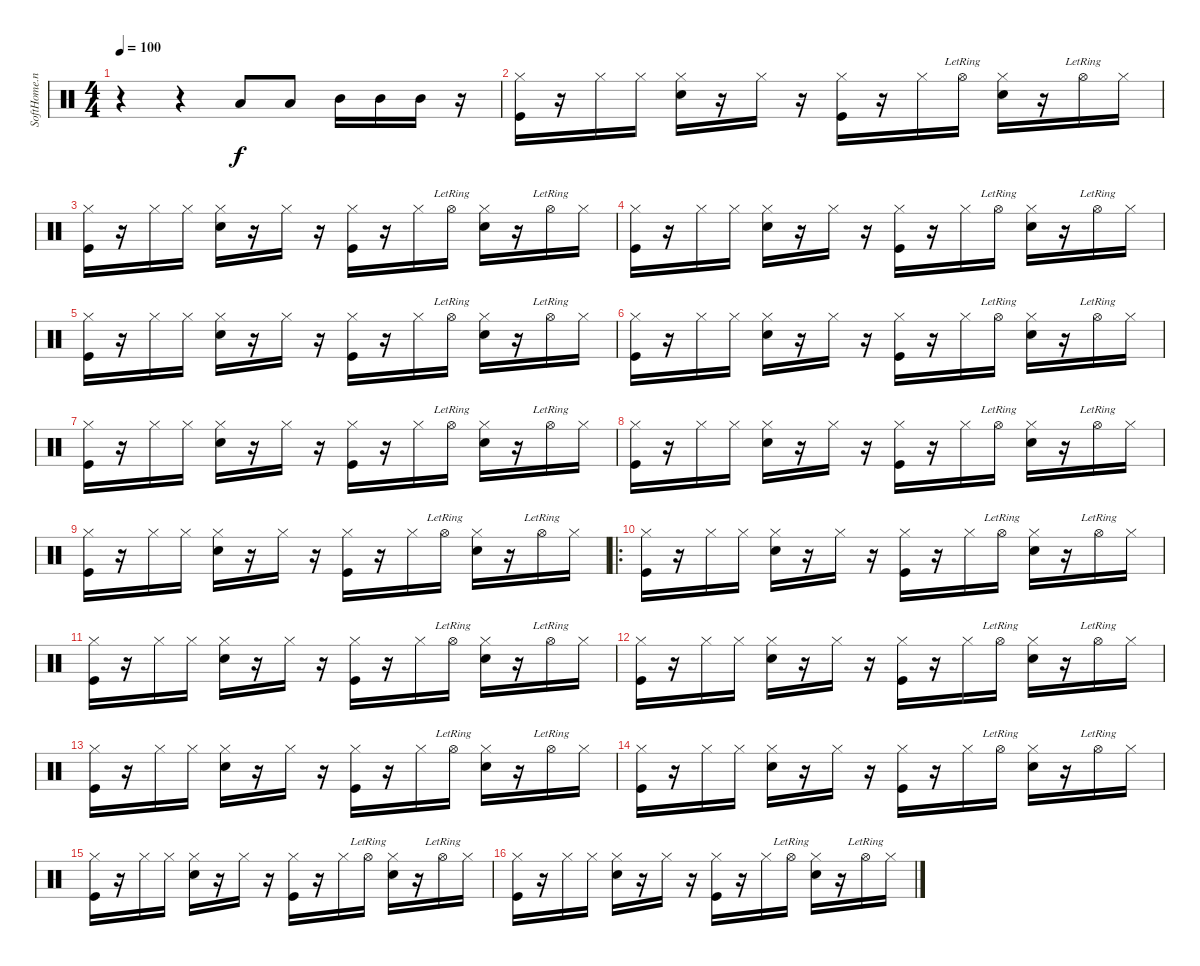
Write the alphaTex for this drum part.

\track ("SoftHome.net" "SoftHome.n") {instrument percussion}
\staff {score}
\articulation defaults
\ts (4 4)
\tempo 100
\clef neutral
\ks c
r.4{dy f} r.4 "Low Floor Tom (hit)".8 "Low Floor Tom (hit)".8 "Mid Tom (hit)".16 "Mid Tom (hit)".16 "Mid Tom (hit)".16 r.16 |
("Hi-Hat (closed)" "Kick (hit)").16 r.16 "Hi-Hat (closed)".16 "Hi-Hat (closed)".16 ("Hi-Hat (closed)" "Snare (hit) 2").16 r.16 "Hi-Hat (closed)".16 r.16 ("Hi-Hat (closed)" "Kick (hit)").16 r.16 "Hi-Hat (closed)".16 "Hi-Hat (open)"{lr}.16 ("Hi-Hat (closed)" "Snare (hit) 2").16 r.16 "Hi-Hat (open)"{lr}.16 "Hi-Hat (closed)".16 |
("Hi-Hat (closed)" "Kick (hit)").16 r.16 "Hi-Hat (closed)".16 "Hi-Hat (closed)".16 ("Hi-Hat (closed)" "Snare (hit) 2").16 r.16 "Hi-Hat (closed)".16 r.16 ("Hi-Hat (closed)" "Kick (hit)").16 r.16 "Hi-Hat (closed)".16 "Hi-Hat (open)"{lr}.16 ("Hi-Hat (closed)" "Snare (hit) 2").16 r.16 "Hi-Hat (open)"{lr}.16 "Hi-Hat (closed)".16 |
("Hi-Hat (closed)" "Kick (hit)").16 r.16 "Hi-Hat (closed)".16 "Hi-Hat (closed)".16 ("Hi-Hat (closed)" "Snare (hit) 2").16 r.16 "Hi-Hat (closed)".16 r.16 ("Hi-Hat (closed)" "Kick (hit)").16 r.16 "Hi-Hat (closed)".16 "Hi-Hat (open)"{lr}.16 ("Hi-Hat (closed)" "Snare (hit) 2").16 r.16 "Hi-Hat (open)"{lr}.16 "Hi-Hat (closed)".16 |
("Hi-Hat (closed)" "Kick (hit)").16 r.16 "Hi-Hat (closed)".16 "Hi-Hat (closed)".16 ("Hi-Hat (closed)" "Snare (hit) 2").16 r.16 "Hi-Hat (closed)".16 r.16 ("Hi-Hat (closed)" "Kick (hit)").16 r.16 "Hi-Hat (closed)".16 "Hi-Hat (open)"{lr}.16 ("Hi-Hat (closed)" "Snare (hit) 2").16 r.16 "Hi-Hat (open)"{lr}.16 "Hi-Hat (closed)".16 |
("Hi-Hat (closed)" "Kick (hit)").16 r.16 "Hi-Hat (closed)".16 "Hi-Hat (closed)".16 ("Hi-Hat (closed)" "Snare (hit) 2").16 r.16 "Hi-Hat (closed)".16 r.16 ("Hi-Hat (closed)" "Kick (hit)").16 r.16 "Hi-Hat (closed)".16 "Hi-Hat (open)"{lr}.16 ("Hi-Hat (closed)" "Snare (hit) 2").16 r.16 "Hi-Hat (open)"{lr}.16 "Hi-Hat (closed)".16 |
("Hi-Hat (closed)" "Kick (hit)").16 r.16 "Hi-Hat (closed)".16 "Hi-Hat (closed)".16 ("Hi-Hat (closed)" "Snare (hit) 2").16 r.16 "Hi-Hat (closed)".16 r.16 ("Hi-Hat (closed)" "Kick (hit)").16 r.16 "Hi-Hat (closed)".16 "Hi-Hat (open)"{lr}.16 ("Hi-Hat (closed)" "Snare (hit) 2").16 r.16 "Hi-Hat (open)"{lr}.16 "Hi-Hat (closed)".16 |
("Hi-Hat (closed)" "Kick (hit)").16 r.16 "Hi-Hat (closed)".16 "Hi-Hat (closed)".16 ("Hi-Hat (closed)" "Snare (hit) 2").16 r.16 "Hi-Hat (closed)".16 r.16 ("Hi-Hat (closed)" "Kick (hit)").16 r.16 "Hi-Hat (closed)".16 "Hi-Hat (open)"{lr}.16 ("Hi-Hat (closed)" "Snare (hit) 2").16 r.16 "Hi-Hat (open)"{lr}.16 "Hi-Hat (closed)".16 |
("Hi-Hat (closed)" "Kick (hit)").16 r.16 "Hi-Hat (closed)".16 "Hi-Hat (closed)".16 ("Hi-Hat (closed)" "Snare (hit) 2").16 r.16 "Hi-Hat (closed)".16 r.16 ("Hi-Hat (closed)" "Kick (hit)").16 r.16 "Hi-Hat (closed)".16 "Hi-Hat (open)"{lr}.16 ("Hi-Hat (closed)" "Snare (hit) 2").16 r.16 "Hi-Hat (open)"{lr}.16 "Hi-Hat (closed)".16 |
\ro
("Hi-Hat (closed)" "Kick (hit)").16 r.16 "Hi-Hat (closed)".16 "Hi-Hat (closed)".16 ("Hi-Hat (closed)" "Snare (hit) 2").16 r.16 "Hi-Hat (closed)".16 r.16 ("Hi-Hat (closed)" "Kick (hit)").16 r.16 "Hi-Hat (closed)".16 "Hi-Hat (open)"{lr}.16 ("Hi-Hat (closed)" "Snare (hit) 2").16 r.16 "Hi-Hat (open)"{lr}.16 "Hi-Hat (closed)".16 |
("Hi-Hat (closed)" "Kick (hit)").16 r.16 "Hi-Hat (closed)".16 "Hi-Hat (closed)".16 ("Hi-Hat (closed)" "Snare (hit) 2").16 r.16 "Hi-Hat (closed)".16 r.16 ("Hi-Hat (closed)" "Kick (hit)").16 r.16 "Hi-Hat (closed)".16 "Hi-Hat (open)"{lr}.16 ("Hi-Hat (closed)" "Snare (hit) 2").16 r.16 "Hi-Hat (open)"{lr}.16 "Hi-Hat (closed)".16 |
("Hi-Hat (closed)" "Kick (hit)").16 r.16 "Hi-Hat (closed)".16 "Hi-Hat (closed)".16 ("Hi-Hat (closed)" "Snare (hit) 2").16 r.16 "Hi-Hat (closed)".16 r.16 ("Hi-Hat (closed)" "Kick (hit)").16 r.16 "Hi-Hat (closed)".16 "Hi-Hat (open)"{lr}.16 ("Hi-Hat (closed)" "Snare (hit) 2").16 r.16 "Hi-Hat (open)"{lr}.16 "Hi-Hat (closed)".16 |
("Hi-Hat (closed)" "Kick (hit)").16 r.16 "Hi-Hat (closed)".16 "Hi-Hat (closed)".16 ("Hi-Hat (closed)" "Snare (hit) 2").16 r.16 "Hi-Hat (closed)".16 r.16 ("Hi-Hat (closed)" "Kick (hit)").16 r.16 "Hi-Hat (closed)".16 "Hi-Hat (open)"{lr}.16 ("Hi-Hat (closed)" "Snare (hit) 2").16 r.16 "Hi-Hat (open)"{lr}.16 "Hi-Hat (closed)".16 |
("Hi-Hat (closed)" "Kick (hit)").16 r.16 "Hi-Hat (closed)".16 "Hi-Hat (closed)".16 ("Hi-Hat (closed)" "Snare (hit) 2").16 r.16 "Hi-Hat (closed)".16 r.16 ("Hi-Hat (closed)" "Kick (hit)").16 r.16 "Hi-Hat (closed)".16 "Hi-Hat (open)"{lr}.16 ("Hi-Hat (closed)" "Snare (hit) 2").16 r.16 "Hi-Hat (open)"{lr}.16 "Hi-Hat (closed)".16 |
("Hi-Hat (closed)" "Kick (hit)").16 r.16 "Hi-Hat (closed)".16 "Hi-Hat (closed)".16 ("Hi-Hat (closed)" "Snare (hit) 2").16 r.16 "Hi-Hat (closed)".16 r.16 ("Hi-Hat (closed)" "Kick (hit)").16 r.16 "Hi-Hat (closed)".16 "Hi-Hat (open)"{lr}.16 ("Hi-Hat (closed)" "Snare (hit) 2").16 r.16 "Hi-Hat (open)"{lr}.16 "Hi-Hat (closed)".16 |
("Hi-Hat (closed)" "Kick (hit)").16 r.16 "Hi-Hat (closed)".16 "Hi-Hat (closed)".16 ("Hi-Hat (closed)" "Snare (hit) 2").16 r.16 "Hi-Hat (closed)".16 r.16 ("Hi-Hat (closed)" "Kick (hit)").16 r.16 "Hi-Hat (closed)".16 "Hi-Hat (open)"{lr}.16 ("Hi-Hat (closed)" "Snare (hit) 2").16 r.16 "Hi-Hat (open)"{lr}.16 "Hi-Hat (closed)".16
